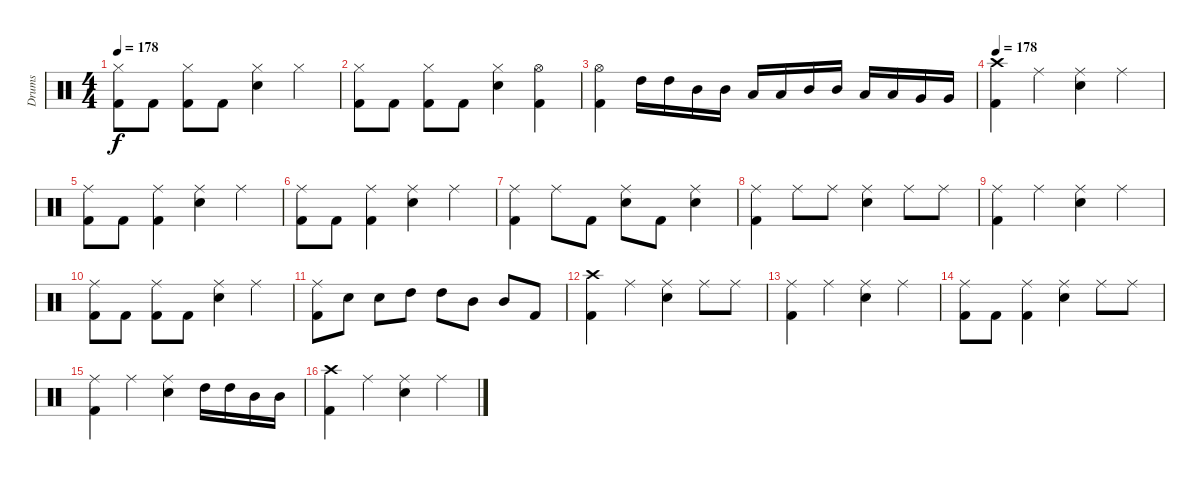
\track ("Drums" "Drums") {mute instrument percussion}
\staff {score}
\articulation defaults
\ts (4 4)
\tempo 178
\clef neutral
\ks c
("Hi-Hat (closed)" "Kick (hit) 2").8{dy f} "Kick (hit) 2".8 ("Hi-Hat (closed)" "Kick (hit) 2").8 "Kick (hit) 2".8 ("Hi-Hat (closed)" "Electric Snare (hit)").4 "Hi-Hat (closed)".4 |
("Hi-Hat (closed)" "Kick (hit) 2").8 "Kick (hit) 2".8 ("Hi-Hat (closed)" "Kick (hit) 2").8 "Kick (hit) 2".8 ("Hi-Hat (closed)" "Electric Snare (hit)").4 ("Hi-Hat (open)" "Kick (hit) 2").4 |
("Hi-Hat (open)" "Kick (hit) 2").4 "High Tom (hit)".16 "High Tom (hit)".16 "Mid Tom (hit)".16 "Mid Tom (hit)".16 "Low Tom (hit)".16 "Low Tom (hit)".16 "Mid Tom (hit)".16 "Mid Tom (hit)".16 "Low Tom (hit)".16 "Low Tom (hit)".16 "Very Low Tom (hit)".16 "Very Low Tom (hit)".16 |
\tempo 178
("Crash high (hit)" "Kick (hit) 2").4 "Ride (middle)".4 ("Ride (middle)" "Electric Snare (hit)").4 "Ride (middle)".4 |
("Ride (middle)" "Kick (hit) 2").8 "Kick (hit) 2".8 ("Ride (middle)" "Kick (hit) 2").4 ("Ride (middle)" "Electric Snare (hit)").4 "Ride (middle)".4 |
("Ride (middle)" "Kick (hit) 2").8 "Kick (hit) 2".8 ("Ride (middle)" "Kick (hit) 2").4 ("Ride (middle)" "Electric Snare (hit)").4 "Ride (middle)".4 |
("Ride (middle)" "Kick (hit) 2").4 "Ride (middle)".8 "Kick (hit) 2".8 ("Ride (middle)" "Electric Snare (hit)").8 "Kick (hit) 2".8 ("Ride (middle)" "Electric Snare (hit)").4 |
("Ride (middle)" "Kick (hit) 2").4 "Ride (middle)".8 "Ride (middle)".8 ("Ride (middle)" "Electric Snare (hit)").4 "Ride (middle)".8 "Ride (middle)".8 |
("Ride (middle)" "Kick (hit) 2").4 "Ride (middle)".4 ("Ride (middle)" "Electric Snare (hit)").4 "Ride (middle)".4 |
("Ride (middle)" "Kick (hit) 2").8 "Kick (hit) 2".8 ("Ride (middle)" "Kick (hit) 2").8 "Kick (hit) 2".8 ("Ride (middle)" "Electric Snare (hit)").4 "Ride (middle)".4 |
("Ride (middle)" "Kick (hit) 2").8 "Electric Snare (hit)".8 "Electric Snare (hit)".8 "High Tom (hit)".8 "High Tom (hit)".8 "Mid Tom (hit)".8 "Mid Tom (hit)".8 "Kick (hit) 2".8 |
("Crash high (hit)" "Kick (hit) 2").4 "Ride (middle)".4 ("Ride (middle)" "Electric Snare (hit)").4 "Ride (middle)".8 "Ride (middle)".8 |
("Ride (middle)" "Kick (hit) 2").4 "Ride (middle)".4 ("Ride (middle)" "Electric Snare (hit)").4 "Ride (middle)".4 |
("Ride (middle)" "Kick (hit) 2").8 "Kick (hit) 2".8 ("Ride (middle)" "Kick (hit) 2").4 ("Ride (middle)" "Electric Snare (hit)").4 "Ride (middle)".8 "Ride (middle)".8 |
("Ride (middle)" "Kick (hit) 2").4 "Ride (middle)".4 ("Ride (middle)" "Electric Snare (hit)").4 "High Tom (hit)".16 "High Tom (hit)".16 "Mid Tom (hit)".16 "Mid Tom (hit)".16 |
("Crash high (hit)" "Kick (hit) 2").4 "Ride (middle)".4 ("Ride (middle)" "Electric Snare (hit)").4 "Ride (middle)".4
